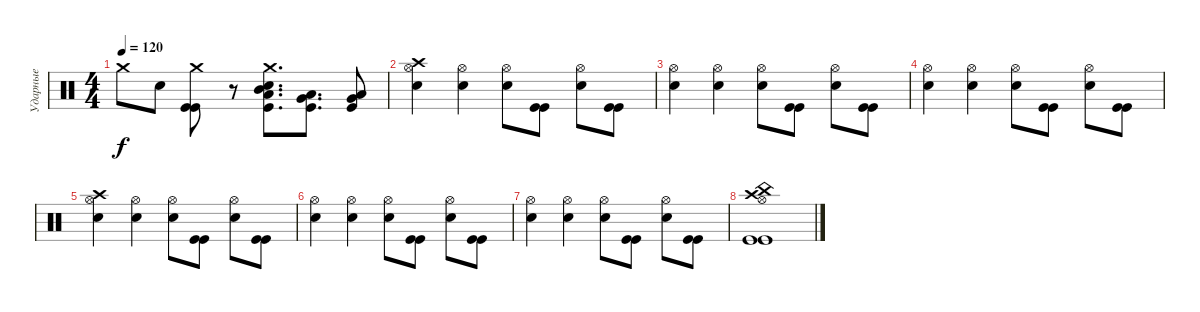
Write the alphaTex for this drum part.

\track ("Ударные" "Ударные") {instrument percussion}
\staff {score}
\articulation defaults
\ts (4 4)
\tempo 120
\clef neutral
\ks c "Crash medium (hit)".8{dy f} "Electric Snare (hit)".8
("Crash medium (hit)" "Kick (hit)" "Kick (hit)").8 r.8 ("Crash medium (hit)" "Electric Snare (hit)" "Low Tom (hit)" "Mid Tom (hit)" "Kick (hit)").8{d} ("Very Low Tom (hit)" "Low Tom (hit)" "Kick (hit)").8{d} ("Very Low Tom (hit)" "Low Floor Tom (hit)" "Kick (hit)").8 |
("Crash high (hit)" "Hi-Hat (open)" "Electric Snare (hit)").4 ("Hi-Hat (open)" "Electric Snare (hit)").4 ("Hi-Hat (open)" "Electric Snare (hit)").8 ("Kick (hit)" "Kick (hit)").8 ("Hi-Hat (open)" "Electric Snare (hit)").8 ("Kick (hit)" "Kick (hit)").8 |
("Hi-Hat (open)" "Electric Snare (hit)").4 ("Hi-Hat (open)" "Electric Snare (hit)").4 ("Hi-Hat (open)" "Electric Snare (hit)").8 ("Kick (hit)" "Kick (hit)").8 ("Hi-Hat (open)" "Electric Snare (hit)").8 ("Kick (hit)" "Kick (hit)").8 |
("Hi-Hat (open)" "Electric Snare (hit)").4 ("Hi-Hat (open)" "Electric Snare (hit)").4 ("Hi-Hat (open)" "Electric Snare (hit)").8 ("Kick (hit)" "Kick (hit)").8 ("Hi-Hat (open)" "Electric Snare (hit)").8 ("Kick (hit)" "Kick (hit)").8 |
("Crash high (hit)" "Hi-Hat (open)" "Electric Snare (hit)").4 ("Hi-Hat (open)" "Electric Snare (hit)").4 ("Hi-Hat (open)" "Electric Snare (hit)").8 ("Kick (hit)" "Kick (hit)").8 ("Hi-Hat (open)" "Electric Snare (hit)").8 ("Kick (hit)" "Kick (hit)").8 |
("Hi-Hat (open)" "Electric Snare (hit)").4 ("Hi-Hat (open)" "Electric Snare (hit)").4 ("Hi-Hat (open)" "Electric Snare (hit)").8 ("Kick (hit)" "Kick (hit)").8 ("Hi-Hat (open)" "Electric Snare (hit)").8 ("Kick (hit)" "Kick (hit)").8 |
("Hi-Hat (open)" "Electric Snare (hit)").4 ("Hi-Hat (open)" "Electric Snare (hit)").4 ("Hi-Hat (open)" "Electric Snare (hit)").8 ("Kick (hit)" "Kick (hit)").8 ("Hi-Hat (open)" "Electric Snare (hit)").8 ("Kick (hit)" "Kick (hit)").8 |
("Crash high (hit)" "China (hit)" "Hi-Hat (open)" "Kick (hit)" "Kick (hit)").1
